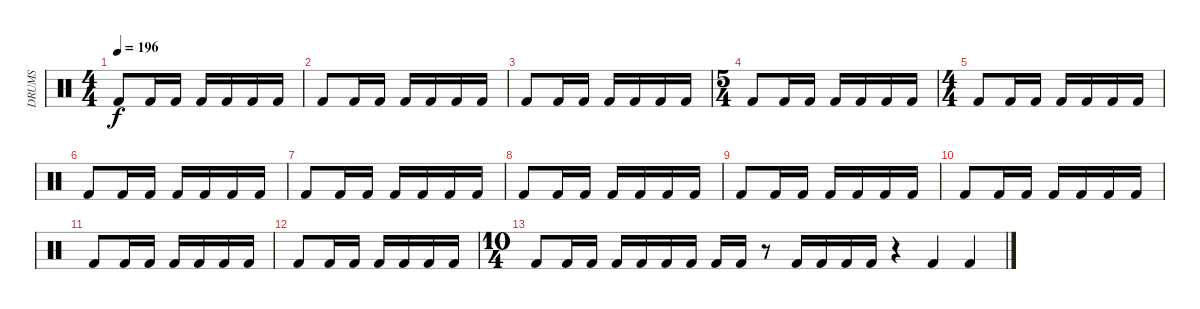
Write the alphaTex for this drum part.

\track ("DRUMS" "DRUMS") {instrument percussion}
\staff {score}
\articulation defaults
\ts (4 4)
\tempo 196
\clef neutral
\ks c "Kick (hit) 2".8{dy f} "Kick (hit) 2".16 "Kick (hit) 2".16 "Kick (hit) 2".16 "Kick (hit) 2".16 "Kick (hit) 2".16 "Kick (hit) 2".16
|
"Kick (hit) 2".8 "Kick (hit) 2".16 "Kick (hit) 2".16 "Kick (hit) 2".16 "Kick (hit) 2".16 "Kick (hit) 2".16 "Kick (hit) 2".16 |
"Kick (hit) 2".8 "Kick (hit) 2".16 "Kick (hit) 2".16 "Kick (hit) 2".16 "Kick (hit) 2".16 "Kick (hit) 2".16 "Kick (hit) 2".16 |
\ts (5 4)
"Kick (hit) 2".8 "Kick (hit) 2".16 "Kick (hit) 2".16 "Kick (hit) 2".16 "Kick (hit) 2".16 "Kick (hit) 2".16 "Kick (hit) 2".16 |
\ts (4 4)
"Kick (hit) 2".8 "Kick (hit) 2".16 "Kick (hit) 2".16 "Kick (hit) 2".16 "Kick (hit) 2".16 "Kick (hit) 2".16 "Kick (hit) 2".16 |
"Kick (hit) 2".8 "Kick (hit) 2".16 "Kick (hit) 2".16 "Kick (hit) 2".16 "Kick (hit) 2".16 "Kick (hit) 2".16 "Kick (hit) 2".16 |
"Kick (hit) 2".8 "Kick (hit) 2".16 "Kick (hit) 2".16 "Kick (hit) 2".16 "Kick (hit) 2".16 "Kick (hit) 2".16 "Kick (hit) 2".16 |
"Kick (hit) 2".8 "Kick (hit) 2".16 "Kick (hit) 2".16 "Kick (hit) 2".16 "Kick (hit) 2".16 "Kick (hit) 2".16 "Kick (hit) 2".16 |
"Kick (hit) 2".8 "Kick (hit) 2".16 "Kick (hit) 2".16 "Kick (hit) 2".16 "Kick (hit) 2".16 "Kick (hit) 2".16 "Kick (hit) 2".16 |
"Kick (hit) 2".8 "Kick (hit) 2".16 "Kick (hit) 2".16 "Kick (hit) 2".16 "Kick (hit) 2".16 "Kick (hit) 2".16 "Kick (hit) 2".16 |
"Kick (hit) 2".8 "Kick (hit) 2".16 "Kick (hit) 2".16 "Kick (hit) 2".16 "Kick (hit) 2".16 "Kick (hit) 2".16 "Kick (hit) 2".16 |
"Kick (hit) 2".8 "Kick (hit) 2".16 "Kick (hit) 2".16 "Kick (hit) 2".16 "Kick (hit) 2".16 "Kick (hit) 2".16 "Kick (hit) 2".16 |
\ts (10 4)
"Kick (hit) 2".8 "Kick (hit) 2".16 "Kick (hit) 2".16 "Kick (hit) 2".16 "Kick (hit) 2".16 "Kick (hit) 2".16 "Kick (hit) 2".16 "Kick (hit) 2".16 "Kick (hit) 2".16 r.8 "Kick (hit) 2".16 "Kick (hit) 2".16 "Kick (hit) 2".16 "Kick (hit) 2".16 r.4 "Kick (hit) 2".4 "Kick (hit) 2".4
